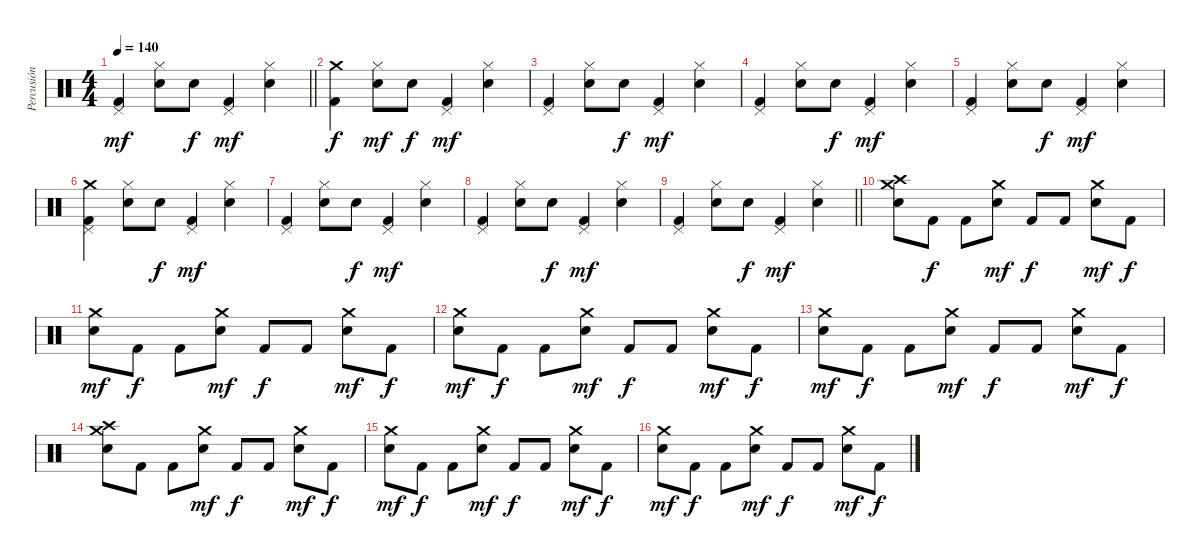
\track ("Percusión" "Percusión") {instrument percussion}
\staff {score}
\articulation defaults
\ts (4 4)
\tempo 140
\clef neutral
\barLineRight lightlight
\ks c
("Pedal Hi-Hat (hit)" "Kick (hit) 2").4{dy mf} ("Hi-Hat (closed)" "Electric Snare (hit)").8 "Electric Snare (hit)".8{dy f} ("Pedal Hi-Hat (hit)" "Kick (hit) 2").4{dy mf} ("Hi-Hat (closed)" "Electric Snare (hit)").4 |
("Crash medium (hit)" "Kick (hit) 2").4{dy f} ("Hi-Hat (closed)" "Electric Snare (hit)").8{dy mf} "Electric Snare (hit)".8{dy f} ("Pedal Hi-Hat (hit)" "Kick (hit) 2").4{dy mf} ("Hi-Hat (closed)" "Electric Snare (hit)").4 |
("Pedal Hi-Hat (hit)" "Kick (hit) 2").4 ("Hi-Hat (closed)" "Electric Snare (hit)").8 "Electric Snare (hit)".8{dy f} ("Pedal Hi-Hat (hit)" "Kick (hit) 2").4{dy mf} ("Hi-Hat (closed)" "Electric Snare (hit)").4 |
("Pedal Hi-Hat (hit)" "Kick (hit) 2").4 ("Hi-Hat (closed)" "Electric Snare (hit)").8 "Electric Snare (hit)".8{dy f} ("Pedal Hi-Hat (hit)" "Kick (hit) 2").4{dy mf} ("Hi-Hat (closed)" "Electric Snare (hit)").4 |
("Pedal Hi-Hat (hit)" "Kick (hit) 2").4 ("Hi-Hat (closed)" "Electric Snare (hit)").8 "Electric Snare (hit)".8{dy f} ("Pedal Hi-Hat (hit)" "Kick (hit) 2").4{dy mf} ("Hi-Hat (closed)" "Electric Snare (hit)").4 |
("Pedal Hi-Hat (hit)" "Crash medium (hit)" "Kick (hit) 2").4 ("Hi-Hat (closed)" "Electric Snare (hit)").8 "Electric Snare (hit)".8{dy f} ("Pedal Hi-Hat (hit)" "Kick (hit) 2").4{dy mf} ("Hi-Hat (closed)" "Electric Snare (hit)").4 |
("Pedal Hi-Hat (hit)" "Kick (hit) 2").4 ("Hi-Hat (closed)" "Electric Snare (hit)").8 "Electric Snare (hit)".8{dy f} ("Pedal Hi-Hat (hit)" "Kick (hit) 2").4{dy mf} ("Hi-Hat (closed)" "Electric Snare (hit)").4 |
("Pedal Hi-Hat (hit)" "Kick (hit) 2").4 ("Hi-Hat (closed)" "Electric Snare (hit)").8 "Electric Snare (hit)".8{dy f} ("Pedal Hi-Hat (hit)" "Kick (hit) 2").4{dy mf} ("Hi-Hat (closed)" "Electric Snare (hit)").4 |
\barLineRight lightlight
("Pedal Hi-Hat (hit)" "Kick (hit) 2").4 ("Hi-Hat (closed)" "Electric Snare (hit)").8 "Electric Snare (hit)".8{dy f} ("Pedal Hi-Hat (hit)" "Kick (hit) 2").4{dy mf} ("Hi-Hat (closed)" "Electric Snare (hit)").4 |
("Crash medium (hit)" "Crash high (hit)" "Electric Snare (hit)").8 "Kick (hit) 2".8{dy f} "Kick (hit) 2".8 ("Crash medium (hit)" "Electric Snare (hit)").8{dy mf} "Kick (hit) 2".8{dy f} "Kick (hit) 2".8 ("Crash medium (hit)" "Electric Snare (hit)").8{dy mf} "Kick (hit) 2".8{dy f} |
("Crash medium (hit)" "Electric Snare (hit)").8{dy mf} "Kick (hit) 2".8{dy f} "Kick (hit) 2".8 ("Crash medium (hit)" "Electric Snare (hit)").8{dy mf} "Kick (hit) 2".8{dy f} "Kick (hit) 2".8 ("Crash medium (hit)" "Electric Snare (hit)").8{dy mf} "Kick (hit) 2".8{dy f} |
("Crash medium (hit)" "Electric Snare (hit)").8{dy mf} "Kick (hit) 2".8{dy f} "Kick (hit) 2".8 ("Crash medium (hit)" "Electric Snare (hit)").8{dy mf} "Kick (hit) 2".8{dy f} "Kick (hit) 2".8 ("Crash medium (hit)" "Electric Snare (hit)").8{dy mf} "Kick (hit) 2".8{dy f} |
("Crash medium (hit)" "Electric Snare (hit)").8{dy mf} "Kick (hit) 2".8{dy f} "Kick (hit) 2".8 ("Crash medium (hit)" "Electric Snare (hit)").8{dy mf} "Kick (hit) 2".8{dy f} "Kick (hit) 2".8 ("Crash medium (hit)" "Electric Snare (hit)").8{dy mf} "Kick (hit) 2".8{dy f} |
("Crash medium (hit)" "Crash high (hit)" "Electric Snare (hit)").8 "Kick (hit) 2".8 "Kick (hit) 2".8 ("Crash medium (hit)" "Electric Snare (hit)").8{dy mf} "Kick (hit) 2".8{dy f} "Kick (hit) 2".8 ("Crash medium (hit)" "Electric Snare (hit)").8{dy mf} "Kick (hit) 2".8{dy f} |
("Crash medium (hit)" "Electric Snare (hit)").8{dy mf} "Kick (hit) 2".8{dy f} "Kick (hit) 2".8 ("Crash medium (hit)" "Electric Snare (hit)").8{dy mf} "Kick (hit) 2".8{dy f} "Kick (hit) 2".8 ("Crash medium (hit)" "Electric Snare (hit)").8{dy mf} "Kick (hit) 2".8{dy f} |
("Crash medium (hit)" "Electric Snare (hit)").8{dy mf} "Kick (hit) 2".8{dy f} "Kick (hit) 2".8 ("Crash medium (hit)" "Electric Snare (hit)").8{dy mf} "Kick (hit) 2".8{dy f} "Kick (hit) 2".8 ("Crash medium (hit)" "Electric Snare (hit)").8{dy mf} "Kick (hit) 2".8{dy f}
